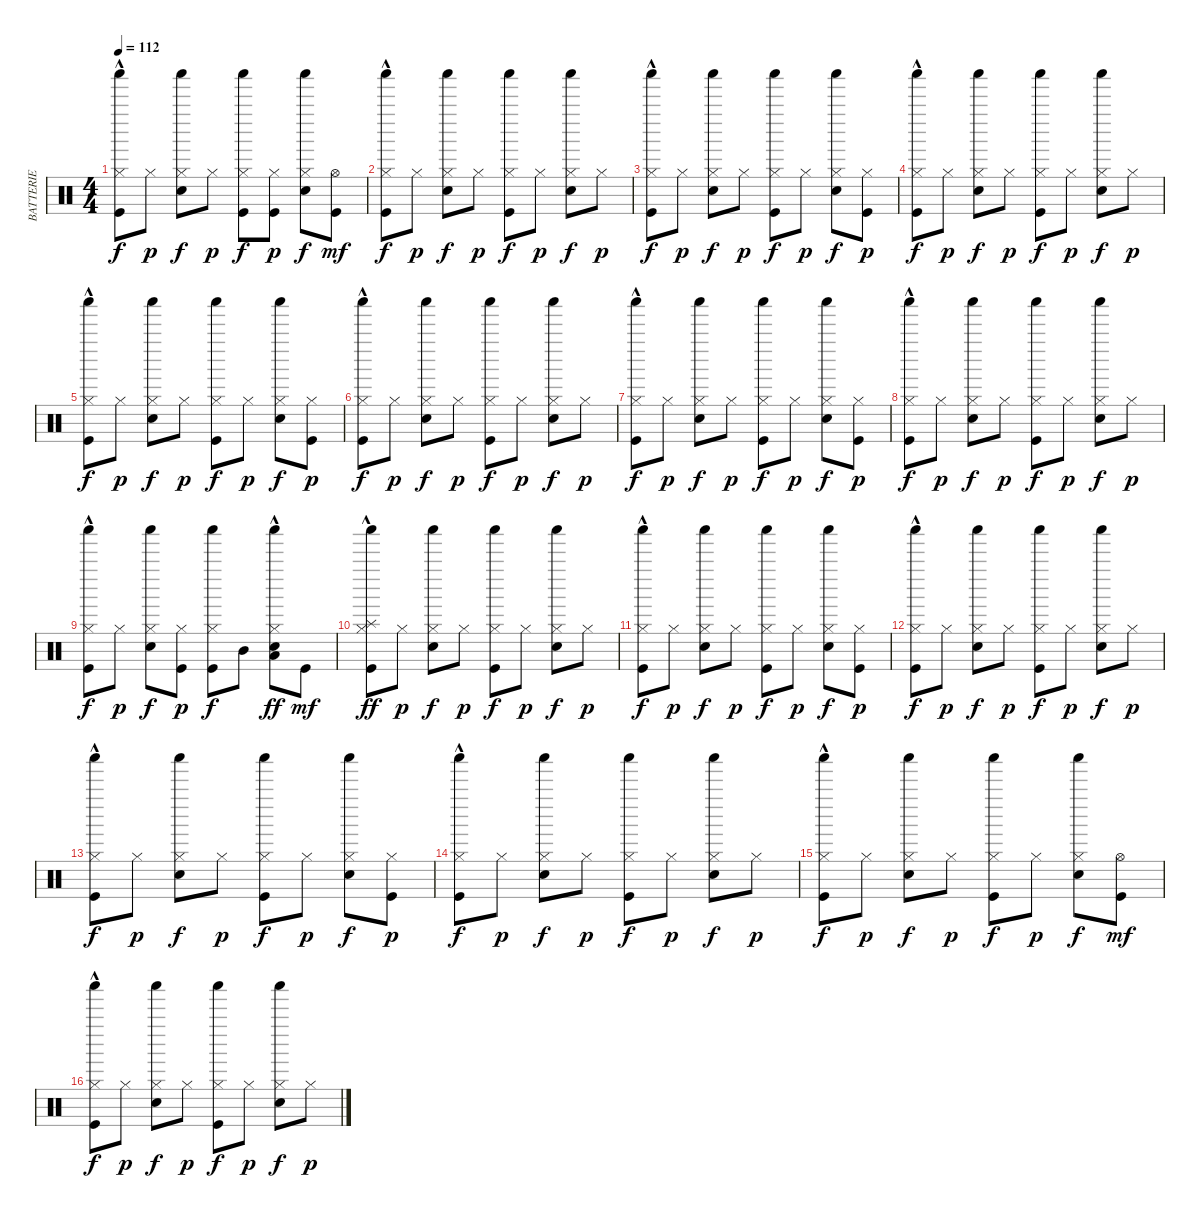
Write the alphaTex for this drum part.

\track ("BATTERIE" "BATTERIE") {instrument percussion}
\staff {score}
\articulation defaults
\ts (4 4)
\tempo 112
\clef neutral
\ks c
("Kick (hit)" "Hi-Hat (closed)"{hac} "Shaker (hit)").8{dy f} "Hi-Hat (closed)".8{dy p} ("Snare (hit) 2" "Hi-Hat (closed)" "Shaker (hit)").8{dy f} "Hi-Hat (closed)".8{dy p} ("Kick (hit)" "Hi-Hat (closed)" "Shaker (hit)").8{dy f} ("Kick (hit)" "Hi-Hat (closed)").8{dy p} ("Snare (hit) 2" "Hi-Hat (closed)" "Shaker (hit)").8{dy f} ("Kick (hit)" "Hi-Hat (open)").8{dy mf} |
("Kick (hit)" "Hi-Hat (closed)"{hac} "Shaker (hit)").8{dy f} "Hi-Hat (closed)".8{dy p} ("Snare (hit) 2" "Hi-Hat (closed)" "Shaker (hit)").8{dy f} "Hi-Hat (closed)".8{dy p} ("Kick (hit)" "Hi-Hat (closed)" "Shaker (hit)").8{dy f} "Hi-Hat (closed)".8{dy p} ("Snare (hit) 2" "Hi-Hat (closed)" "Shaker (hit)").8{dy f} "Hi-Hat (closed)".8{dy p} |
("Kick (hit)" "Hi-Hat (closed)"{hac} "Shaker (hit)").8{dy f} "Hi-Hat (closed)".8{dy p} ("Snare (hit) 2" "Hi-Hat (closed)" "Shaker (hit)").8{dy f} "Hi-Hat (closed)".8{dy p} ("Kick (hit)" "Hi-Hat (closed)" "Shaker (hit)").8{dy f} "Hi-Hat (closed)".8{dy p} ("Snare (hit) 2" "Hi-Hat (closed)" "Shaker (hit)").8{dy f} ("Kick (hit)" "Hi-Hat (closed)").8{dy p} |
("Kick (hit)" "Hi-Hat (closed)"{hac} "Shaker (hit)").8{dy f} "Hi-Hat (closed)".8{dy p} ("Snare (hit) 2" "Hi-Hat (closed)" "Shaker (hit)").8{dy f} "Hi-Hat (closed)".8{dy p} ("Kick (hit)" "Hi-Hat (closed)" "Shaker (hit)").8{dy f} "Hi-Hat (closed)".8{dy p} ("Snare (hit) 2" "Hi-Hat (closed)" "Shaker (hit)").8{dy f} "Hi-Hat (closed)".8{dy p} |
("Kick (hit)" "Hi-Hat (closed)"{hac} "Shaker (hit)").8{dy f} "Hi-Hat (closed)".8{dy p} ("Snare (hit) 2" "Hi-Hat (closed)" "Shaker (hit)").8{dy f} "Hi-Hat (closed)".8{dy p} ("Kick (hit)" "Hi-Hat (closed)" "Shaker (hit)").8{dy f} "Hi-Hat (closed)".8{dy p} ("Snare (hit) 2" "Hi-Hat (closed)" "Shaker (hit)").8{dy f} ("Kick (hit)" "Hi-Hat (closed)").8{dy p} |
("Kick (hit)" "Hi-Hat (closed)"{hac} "Shaker (hit)").8{dy f} "Hi-Hat (closed)".8{dy p} ("Snare (hit) 2" "Hi-Hat (closed)" "Shaker (hit)").8{dy f} "Hi-Hat (closed)".8{dy p} ("Kick (hit)" "Hi-Hat (closed)" "Shaker (hit)").8{dy f} "Hi-Hat (closed)".8{dy p} ("Snare (hit) 2" "Hi-Hat (closed)" "Shaker (hit)").8{dy f} "Hi-Hat (closed)".8{dy p} |
("Kick (hit)" "Hi-Hat (closed)"{hac} "Shaker (hit)").8{dy f} "Hi-Hat (closed)".8{dy p} ("Snare (hit) 2" "Hi-Hat (closed)" "Shaker (hit)").8{dy f} "Hi-Hat (closed)".8{dy p} ("Kick (hit)" "Hi-Hat (closed)" "Shaker (hit)").8{dy f} "Hi-Hat (closed)".8{dy p} ("Snare (hit) 2" "Hi-Hat (closed)" "Shaker (hit)").8{dy f} ("Kick (hit)" "Hi-Hat (closed)").8{dy p} |
("Kick (hit)" "Hi-Hat (closed)"{hac} "Shaker (hit)").8{dy f} "Hi-Hat (closed)".8{dy p} ("Snare (hit) 2" "Hi-Hat (closed)" "Shaker (hit)").8{dy f} "Hi-Hat (closed)".8{dy p} ("Kick (hit)" "Hi-Hat (closed)" "Shaker (hit)").8{dy f} "Hi-Hat (closed)".8{dy p} ("Snare (hit) 2" "Hi-Hat (closed)" "Shaker (hit)").8{dy f} "Hi-Hat (closed)".8{dy p} |
("Kick (hit)" "Hi-Hat (closed)"{hac} "Shaker (hit)").8{dy f} "Hi-Hat (closed)".8{dy p} ("Snare (hit) 2" "Hi-Hat (closed)" "Shaker (hit)").8{dy f} ("Kick (hit)" "Hi-Hat (closed)").8{dy p} ("Kick (hit)" "Hi-Hat (closed)" "Shaker (hit)").8{dy f} "Mid Tom (hit)".8 ("Snare (hit) 2" "Hi-Hat (closed)" "Shaker (hit)" "Low Tom (hit)"{hac}).8{dy ff} "Kick (hit)".8{dy mf} |
("Kick (hit)" "Hi-Hat (closed)"{hac} "Shaker (hit)" "Splash (hit)"{hac}).8{dy ff} "Hi-Hat (closed)".8{dy p} ("Snare (hit) 2" "Hi-Hat (closed)" "Shaker (hit)").8{dy f} "Hi-Hat (closed)".8{dy p} ("Kick (hit)" "Hi-Hat (closed)" "Shaker (hit)").8{dy f} "Hi-Hat (closed)".8{dy p} ("Snare (hit) 2" "Hi-Hat (closed)" "Shaker (hit)").8{dy f} "Hi-Hat (closed)".8{dy p} |
("Kick (hit)" "Hi-Hat (closed)"{hac} "Shaker (hit)").8{dy f} "Hi-Hat (closed)".8{dy p} ("Snare (hit) 2" "Hi-Hat (closed)" "Shaker (hit)").8{dy f} "Hi-Hat (closed)".8{dy p} ("Kick (hit)" "Hi-Hat (closed)" "Shaker (hit)").8{dy f} "Hi-Hat (closed)".8{dy p} ("Snare (hit) 2" "Hi-Hat (closed)" "Shaker (hit)").8{dy f} ("Kick (hit)" "Hi-Hat (closed)").8{dy p} |
("Kick (hit)" "Hi-Hat (closed)"{hac} "Shaker (hit)").8{dy f} "Hi-Hat (closed)".8{dy p} ("Snare (hit) 2" "Hi-Hat (closed)" "Shaker (hit)").8{dy f} "Hi-Hat (closed)".8{dy p} ("Kick (hit)" "Hi-Hat (closed)" "Shaker (hit)").8{dy f} "Hi-Hat (closed)".8{dy p} ("Snare (hit) 2" "Hi-Hat (closed)" "Shaker (hit)").8{dy f} "Hi-Hat (closed)".8{dy p} |
("Kick (hit)" "Hi-Hat (closed)"{hac} "Shaker (hit)").8{dy f} "Hi-Hat (closed)".8{dy p} ("Snare (hit) 2" "Hi-Hat (closed)" "Shaker (hit)").8{dy f} "Hi-Hat (closed)".8{dy p} ("Kick (hit)" "Hi-Hat (closed)" "Shaker (hit)").8{dy f} "Hi-Hat (closed)".8{dy p} ("Snare (hit) 2" "Hi-Hat (closed)" "Shaker (hit)").8{dy f} ("Kick (hit)" "Hi-Hat (closed)").8{dy p} |
("Kick (hit)" "Hi-Hat (closed)"{hac} "Shaker (hit)").8{dy f} "Hi-Hat (closed)".8{dy p} ("Snare (hit) 2" "Hi-Hat (closed)" "Shaker (hit)").8{dy f} "Hi-Hat (closed)".8{dy p} ("Kick (hit)" "Hi-Hat (closed)" "Shaker (hit)").8{dy f} "Hi-Hat (closed)".8{dy p} ("Snare (hit) 2" "Hi-Hat (closed)" "Shaker (hit)").8{dy f} "Hi-Hat (closed)".8{dy p} |
("Kick (hit)" "Hi-Hat (closed)"{hac} "Shaker (hit)").8{dy f} "Hi-Hat (closed)".8{dy p} ("Snare (hit) 2" "Hi-Hat (closed)" "Shaker (hit)").8{dy f} "Hi-Hat (closed)".8{dy p} ("Kick (hit)" "Hi-Hat (closed)" "Shaker (hit)").8{dy f} "Hi-Hat (closed)".8{dy p} ("Snare (hit) 2" "Hi-Hat (closed)" "Shaker (hit)").8{dy f} ("Kick (hit)" "Hi-Hat (open)").8{dy mf} |
("Kick (hit)" "Hi-Hat (closed)"{hac} "Shaker (hit)").8{dy f} "Hi-Hat (closed)".8{dy p} ("Snare (hit) 2" "Hi-Hat (closed)" "Shaker (hit)").8{dy f} "Hi-Hat (closed)".8{dy p} ("Kick (hit)" "Hi-Hat (closed)" "Shaker (hit)").8{dy f} "Hi-Hat (closed)".8{dy p} ("Snare (hit) 2" "Hi-Hat (closed)" "Shaker (hit)").8{dy f} "Hi-Hat (closed)".8{dy p}
